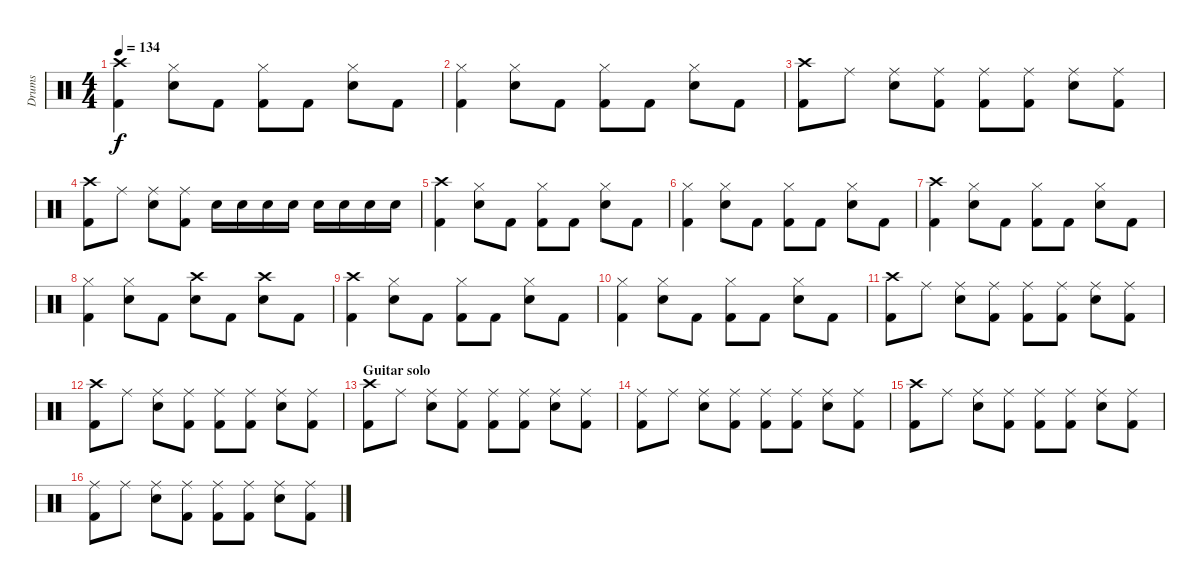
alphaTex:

\track ("Drums" "Drums") {instrument percussion}
\staff {score}
\articulation defaults
\ts (4 4)
\tempo 134
\clef neutral
\ks c
("Crash high (hit)" "Kick (hit) 2").4{dy f} ("Hi-Hat (closed)" "Electric Snare (hit)").8 "Kick (hit) 2".8 ("Hi-Hat (closed)" "Kick (hit) 2").8 "Kick (hit) 2".8 ("Hi-Hat (closed)" "Electric Snare (hit)").8 "Kick (hit) 2".8 |
("Hi-Hat (closed)" "Kick (hit) 2").4 ("Hi-Hat (closed)" "Electric Snare (hit)").8 "Kick (hit) 2".8 ("Hi-Hat (closed)" "Kick (hit) 2").8 "Kick (hit) 2".8 ("Hi-Hat (closed)" "Electric Snare (hit)").8 "Kick (hit) 2".8 |
("Crash high (hit)" "Kick (hit) 2").8 "Ride (middle)".8 ("Ride (middle)" "Electric Snare (hit)").8 ("Ride (middle)" "Kick (hit) 2").8 ("Ride (middle)" "Kick (hit) 2").8 ("Ride (middle)" "Kick (hit) 2").8 ("Ride (middle)" "Electric Snare (hit)").8 ("Ride (middle)" "Kick (hit) 2").8 |
("Crash high (hit)" "Kick (hit) 2").8 "Ride (middle)".8 ("Ride (middle)" "Electric Snare (hit)").8 ("Ride (middle)" "Kick (hit) 2").8 "Electric Snare (hit)".16 "Electric Snare (hit)".16 "Electric Snare (hit)".16 "Electric Snare (hit)".16 "Electric Snare (hit)".16 "Electric Snare (hit)".16 "Electric Snare (hit)".16 "Electric Snare (hit)".16 |
("Crash high (hit)" "Kick (hit) 2").4 ("Hi-Hat (closed)" "Electric Snare (hit)").8 "Kick (hit) 2".8 ("Hi-Hat (closed)" "Kick (hit) 2").8 "Kick (hit) 2".8 ("Hi-Hat (closed)" "Electric Snare (hit)").8 "Kick (hit) 2".8 |
("Hi-Hat (closed)" "Kick (hit) 2").4 ("Hi-Hat (closed)" "Electric Snare (hit)").8 "Kick (hit) 2".8 ("Hi-Hat (closed)" "Kick (hit) 2").8 "Kick (hit) 2".8 ("Hi-Hat (closed)" "Electric Snare (hit)").8 "Kick (hit) 2".8 |
("Crash high (hit)" "Kick (hit) 2").4 ("Hi-Hat (closed)" "Electric Snare (hit)").8 "Kick (hit) 2".8 ("Hi-Hat (closed)" "Kick (hit) 2").8 "Kick (hit) 2".8 ("Hi-Hat (closed)" "Electric Snare (hit)").8 "Kick (hit) 2".8 |
("Hi-Hat (closed)" "Kick (hit) 2").4 ("Hi-Hat (closed)" "Electric Snare (hit)").8 "Kick (hit) 2".8 ("Crash high (hit)" "Electric Snare (hit)").8 "Kick (hit) 2".8 ("Crash high (hit)" "Electric Snare (hit)").8 "Kick (hit) 2".8 |
("Crash high (hit)" "Kick (hit) 2").4 ("Hi-Hat (closed)" "Electric Snare (hit)").8 "Kick (hit) 2".8 ("Hi-Hat (closed)" "Kick (hit) 2").8 "Kick (hit) 2".8 ("Hi-Hat (closed)" "Electric Snare (hit)").8 "Kick (hit) 2".8 |
("Hi-Hat (closed)" "Kick (hit) 2").4 ("Hi-Hat (closed)" "Electric Snare (hit)").8 "Kick (hit) 2".8 ("Hi-Hat (closed)" "Kick (hit) 2").8 "Kick (hit) 2".8 ("Hi-Hat (closed)" "Electric Snare (hit)").8 "Kick (hit) 2".8 |
("Crash high (hit)" "Kick (hit) 2").8 "Ride (middle)".8 ("Ride (middle)" "Electric Snare (hit)").8 ("Ride (middle)" "Kick (hit) 2").8 ("Ride (middle)" "Kick (hit) 2").8 ("Ride (middle)" "Kick (hit) 2").8 ("Ride (middle)" "Electric Snare (hit)").8 ("Ride (middle)" "Kick (hit) 2").8 |
("Crash high (hit)" "Kick (hit) 2").8 "Ride (middle)".8 ("Ride (middle)" "Electric Snare (hit)").8 ("Ride (middle)" "Kick (hit) 2").8 ("Ride (middle)" "Kick (hit) 2").8 ("Ride (middle)" "Kick (hit) 2").8 ("Ride (middle)" "Electric Snare (hit)").8 ("Ride (middle)" "Kick (hit) 2").8 |
\section ("" "Guitar solo")
("Crash high (hit)" "Kick (hit) 2").8 "Ride (middle)".8 ("Ride (middle)" "Electric Snare (hit)").8 ("Ride (middle)" "Kick (hit) 2").8 ("Ride (middle)" "Kick (hit) 2").8 ("Ride (middle)" "Kick (hit) 2").8 ("Ride (middle)" "Electric Snare (hit)").8 ("Ride (middle)" "Kick (hit) 2").8 |
("Ride (middle)" "Kick (hit) 2").8 "Ride (middle)".8 ("Ride (middle)" "Electric Snare (hit)").8 ("Ride (middle)" "Kick (hit) 2").8 ("Ride (middle)" "Kick (hit) 2").8 ("Ride (middle)" "Kick (hit) 2").8 ("Ride (middle)" "Electric Snare (hit)").8 ("Ride (middle)" "Kick (hit) 2").8 |
("Crash high (hit)" "Kick (hit) 2").8 "Ride (middle)".8 ("Ride (middle)" "Electric Snare (hit)").8 ("Ride (middle)" "Kick (hit) 2").8 ("Ride (middle)" "Kick (hit) 2").8 ("Ride (middle)" "Kick (hit) 2").8 ("Ride (middle)" "Electric Snare (hit)").8 ("Ride (middle)" "Kick (hit) 2").8 |
("Ride (middle)" "Kick (hit) 2").8 "Ride (middle)".8 ("Ride (middle)" "Electric Snare (hit)").8 ("Ride (middle)" "Kick (hit) 2").8 ("Ride (middle)" "Kick (hit) 2").8 ("Ride (middle)" "Kick (hit) 2").8 ("Ride (middle)" "Electric Snare (hit)").8 ("Ride (middle)" "Kick (hit) 2").8
